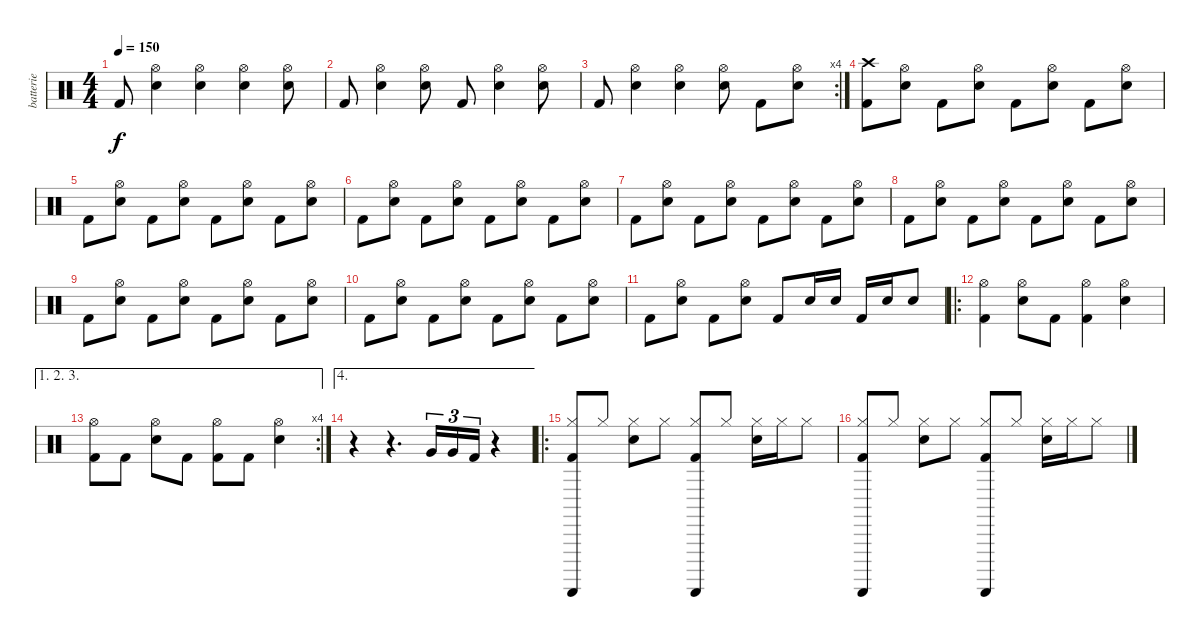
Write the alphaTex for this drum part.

\track ("batterie" "batterie") {instrument percussion}
\staff {score}
\articulation defaults
\ts (4 4)
\tempo 150
\clef neutral
\ks c "Kick (hit) 2".8{dy f}
("Hi-Hat (open)" "Electric Snare (hit)").4 ("Hi-Hat (open)" "Electric Snare (hit)").4 ("Hi-Hat (open)" "Electric Snare (hit)").4 ("Hi-Hat (open)" "Electric Snare (hit)").8 |
"Kick (hit) 2".8 ("Hi-Hat (open)" "Electric Snare (hit)").4 ("Hi-Hat (open)" "Electric Snare (hit)").8 "Kick (hit) 2".8 ("Hi-Hat (open)" "Electric Snare (hit)").4 ("Hi-Hat (open)" "Electric Snare (hit)").8 |
\rc 4 "Kick (hit) 2".8
("Hi-Hat (open)" "Electric Snare (hit)").4 ("Hi-Hat (open)" "Electric Snare (hit)").4 ("Hi-Hat (open)" "Electric Snare (hit)").8 "Kick (hit) 2".8 ("Hi-Hat (open)" "Electric Snare (hit)").8 |
("Crash high (hit)" "Kick (hit) 2").8 ("Hi-Hat (open)" "Electric Snare (hit)").8 "Kick (hit) 2".8 ("Hi-Hat (open)" "Electric Snare (hit)").8 "Kick (hit) 2".8 ("Hi-Hat (open)" "Electric Snare (hit)").8 "Kick (hit) 2".8 ("Hi-Hat (open)" "Electric Snare (hit)").8 |
"Kick (hit) 2".8 ("Hi-Hat (open)" "Electric Snare (hit)").8 "Kick (hit) 2".8 ("Hi-Hat (open)" "Electric Snare (hit)").8 "Kick (hit) 2".8 ("Hi-Hat (open)" "Electric Snare (hit)").8 "Kick (hit) 2".8 ("Hi-Hat (open)" "Electric Snare (hit)").8 |
"Kick (hit) 2".8 ("Hi-Hat (open)" "Electric Snare (hit)").8 "Kick (hit) 2".8 ("Hi-Hat (open)" "Electric Snare (hit)").8 "Kick (hit) 2".8 ("Hi-Hat (open)" "Electric Snare (hit)").8 "Kick (hit) 2".8 ("Hi-Hat (open)" "Electric Snare (hit)").8 |
"Kick (hit) 2".8 ("Hi-Hat (open)" "Electric Snare (hit)").8 "Kick (hit) 2".8 ("Hi-Hat (open)" "Electric Snare (hit)").8 "Kick (hit) 2".8 ("Hi-Hat (open)" "Electric Snare (hit)").8 "Kick (hit) 2".8 ("Hi-Hat (open)" "Electric Snare (hit)").8 |
"Kick (hit) 2".8 ("Hi-Hat (open)" "Electric Snare (hit)").8 "Kick (hit) 2".8 ("Hi-Hat (open)" "Electric Snare (hit)").8 "Kick (hit) 2".8 ("Hi-Hat (open)" "Electric Snare (hit)").8 "Kick (hit) 2".8 ("Hi-Hat (open)" "Electric Snare (hit)").8 |
"Kick (hit) 2".8 ("Hi-Hat (open)" "Electric Snare (hit)").8 "Kick (hit) 2".8 ("Hi-Hat (open)" "Electric Snare (hit)").8 "Kick (hit) 2".8 ("Hi-Hat (open)" "Electric Snare (hit)").8 "Kick (hit) 2".8 ("Hi-Hat (open)" "Electric Snare (hit)").8 |
"Kick (hit) 2".8 ("Hi-Hat (open)" "Electric Snare (hit)").8 "Kick (hit) 2".8 ("Hi-Hat (open)" "Electric Snare (hit)").8 "Kick (hit) 2".8 ("Hi-Hat (open)" "Electric Snare (hit)").8 "Kick (hit) 2".8 ("Hi-Hat (open)" "Electric Snare (hit)").8 |
"Kick (hit) 2".8 ("Hi-Hat (open)" "Electric Snare (hit)").8 "Kick (hit) 2".8 ("Hi-Hat (open)" "Electric Snare (hit)").8 "Kick (hit) 2".8 "Electric Snare (hit)".16 "Electric Snare (hit)".16 "Kick (hit) 2".16 "Electric Snare (hit)".16 "Electric Snare (hit)".8 |
\ro
("Hi-Hat (open)" "Kick (hit) 2").4 ("Hi-Hat (open)" "Electric Snare (hit)").8 "Kick (hit) 2".8 ("Hi-Hat (open)" "Kick (hit) 2").4 ("Hi-Hat (open)" "Electric Snare (hit)").4 |
\ae (1 2 3)
\rc 4
("Hi-Hat (open)" "Kick (hit) 2").8 "Kick (hit) 2".8 ("Hi-Hat (open)" "Electric Snare (hit)").8 "Kick (hit) 2".8 ("Hi-Hat (open)" "Kick (hit) 2").8 "Kick (hit) 2".8 ("Hi-Hat (open)" "Electric Snare (hit)").4 |
\ae 4
r.4 r.4{d} "Very Low Tom (hit)".16{tu (3 2)} "Very Low Tom (hit)".16{tu (3 2)} "Kick (hit) 2".16{tu (3 2)} r.4 |
\ro
("Hi-Hat (closed)" "Guiro (scrap-return)" "Kick (hit) 2").8 "Hi-Hat (closed)".8 ("Hi-Hat (closed)" "Electric Snare (hit)").8 "Hi-Hat (closed)".8 ("Hi-Hat (closed)" "Guiro (scrap-return)" "Kick (hit) 2").8 "Hi-Hat (closed)".8 ("Hi-Hat (closed)" "Electric Snare (hit)").16 "Hi-Hat (closed)".16 "Hi-Hat (closed)".8 |
("Hi-Hat (closed)" "Guiro (scrap-return)" "Kick (hit) 2").8 "Hi-Hat (closed)".8 ("Hi-Hat (closed)" "Electric Snare (hit)").8 "Hi-Hat (closed)".8 ("Hi-Hat (closed)" "Guiro (scrap-return)" "Kick (hit) 2").8 "Hi-Hat (closed)".8 ("Hi-Hat (closed)" "Electric Snare (hit)").16 "Hi-Hat (closed)".16 "Hi-Hat (closed)".8
